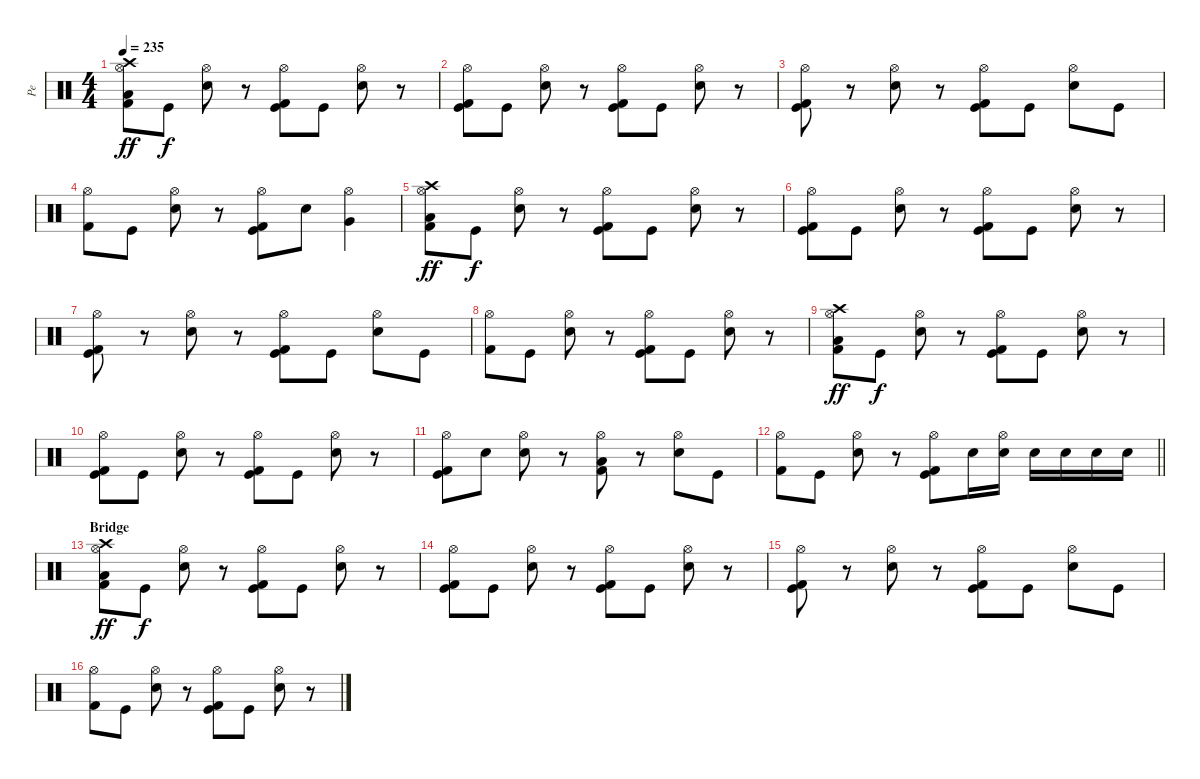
\track ("Pe" "Pe") {instrument percussion}
\staff {score}
\articulation defaults
\ts (4 4)
\tempo 235
\clef neutral
\ks c
("Low Tom (hit)" "Hi-Hat (open)" "Kick (hit) 2" "Crash high (hit)").8{dy ff} "Kick (hit)".8{dy f} ("Electric Snare (hit)" "Hi-Hat (open)").8 r.8 ("Kick (hit)" "Hi-Hat (open)" "Kick (hit) 2").8 "Kick (hit)".8 ("Electric Snare (hit)" "Hi-Hat (open)").8 r.8 |
("Kick (hit)" "Hi-Hat (open)" "Kick (hit) 2").8 "Kick (hit)".8 ("Electric Snare (hit)" "Hi-Hat (open)").8 r.8 ("Kick (hit)" "Hi-Hat (open)" "Kick (hit) 2").8 "Kick (hit)".8 ("Electric Snare (hit)" "Hi-Hat (open)").8 r.8 |
("Kick (hit)" "Hi-Hat (open)" "Kick (hit) 2").8 r.8 ("Electric Snare (hit)" "Hi-Hat (open)").8 r.8 ("Kick (hit)" "Hi-Hat (open)" "Kick (hit) 2").8 "Kick (hit)".8 ("Electric Snare (hit)" "Hi-Hat (open)").8 "Kick (hit)".8 |
("Hi-Hat (open)" "Kick (hit) 2").8 "Kick (hit)".8 ("Electric Snare (hit)" "Hi-Hat (open)").8 r.8 ("Kick (hit)" "Hi-Hat (open)" "Kick (hit) 2").8 "Electric Snare (hit)".8 ("Very Low Tom (hit)" "Hi-Hat (open)").4 |
("Low Tom (hit)" "Hi-Hat (open)" "Kick (hit) 2" "Crash high (hit)").8{dy ff} "Kick (hit)".8{dy f} ("Electric Snare (hit)" "Hi-Hat (open)").8 r.8 ("Kick (hit)" "Hi-Hat (open)" "Kick (hit) 2").8 "Kick (hit)".8 ("Electric Snare (hit)" "Hi-Hat (open)").8 r.8 |
("Kick (hit)" "Hi-Hat (open)" "Kick (hit) 2").8 "Kick (hit)".8 ("Electric Snare (hit)" "Hi-Hat (open)").8 r.8 ("Kick (hit)" "Hi-Hat (open)" "Kick (hit) 2").8 "Kick (hit)".8 ("Electric Snare (hit)" "Hi-Hat (open)").8 r.8 |
("Kick (hit)" "Hi-Hat (open)" "Kick (hit) 2").8 r.8 ("Electric Snare (hit)" "Hi-Hat (open)").8 r.8 ("Kick (hit)" "Hi-Hat (open)" "Kick (hit) 2").8 "Kick (hit)".8 ("Electric Snare (hit)" "Hi-Hat (open)").8 "Kick (hit)".8 |
("Hi-Hat (open)" "Kick (hit) 2").8 "Kick (hit)".8 ("Electric Snare (hit)" "Hi-Hat (open)").8 r.8 ("Kick (hit)" "Hi-Hat (open)" "Kick (hit) 2").8 "Kick (hit)".8 ("Electric Snare (hit)" "Hi-Hat (open)").8 r.8 |
("Low Tom (hit)" "Hi-Hat (open)" "Kick (hit) 2" "Crash high (hit)").8{dy ff} "Kick (hit)".8{dy f} ("Electric Snare (hit)" "Hi-Hat (open)").8 r.8 ("Kick (hit)" "Hi-Hat (open)" "Kick (hit) 2").8 "Kick (hit)".8 ("Electric Snare (hit)" "Hi-Hat (open)").8 r.8 |
("Kick (hit)" "Hi-Hat (open)" "Kick (hit) 2").8 "Kick (hit)".8 ("Electric Snare (hit)" "Hi-Hat (open)").8 r.8 ("Kick (hit)" "Hi-Hat (open)" "Kick (hit) 2").8 "Kick (hit)".8 ("Electric Snare (hit)" "Hi-Hat (open)").8 r.8 |
("Kick (hit)" "Hi-Hat (open)" "Kick (hit) 2").8 "Electric Snare (hit)".8 ("Electric Snare (hit)" "Hi-Hat (open)").8 r.8 ("Low Floor Tom (hit)" "Hi-Hat (open)" "Kick (hit) 2").8 r.8 ("Electric Snare (hit)" "Hi-Hat (open)").8 "Kick (hit)".8 |
\barLineRight lightlight
("Hi-Hat (open)" "Kick (hit) 2").8 "Kick (hit)".8 ("Electric Snare (hit)" "Hi-Hat (open)").8 r.8 ("Kick (hit)" "Hi-Hat (open)" "Kick (hit) 2").8 "Electric Snare (hit)".16 ("Electric Snare (hit)" "Hi-Hat (open)").16 "Electric Snare (hit)".16 "Electric Snare (hit)".16 "Electric Snare (hit)".16 "Electric Snare (hit)".16 |
\section ("" "Bridge")
("Low Tom (hit)" "Hi-Hat (open)" "Kick (hit) 2" "Crash high (hit)").8{dy ff} "Kick (hit)".8{dy f} ("Electric Snare (hit)" "Hi-Hat (open)").8 r.8 ("Kick (hit)" "Hi-Hat (open)" "Kick (hit) 2").8 "Kick (hit)".8 ("Electric Snare (hit)" "Hi-Hat (open)").8 r.8 |
("Kick (hit)" "Hi-Hat (open)" "Kick (hit) 2").8 "Kick (hit)".8 ("Electric Snare (hit)" "Hi-Hat (open)").8 r.8 ("Kick (hit)" "Hi-Hat (open)" "Kick (hit) 2").8 "Kick (hit)".8 ("Electric Snare (hit)" "Hi-Hat (open)").8 r.8 |
("Kick (hit)" "Hi-Hat (open)" "Kick (hit) 2").8 r.8 ("Electric Snare (hit)" "Hi-Hat (open)").8 r.8 ("Kick (hit)" "Hi-Hat (open)" "Kick (hit) 2").8 "Kick (hit)".8 ("Electric Snare (hit)" "Hi-Hat (open)").8 "Kick (hit)".8 |
("Hi-Hat (open)" "Kick (hit) 2").8 "Kick (hit)".8 ("Electric Snare (hit)" "Hi-Hat (open)").8 r.8 ("Kick (hit)" "Hi-Hat (open)" "Kick (hit) 2").8 "Kick (hit)".8 ("Electric Snare (hit)" "Hi-Hat (open)").8 r.8
